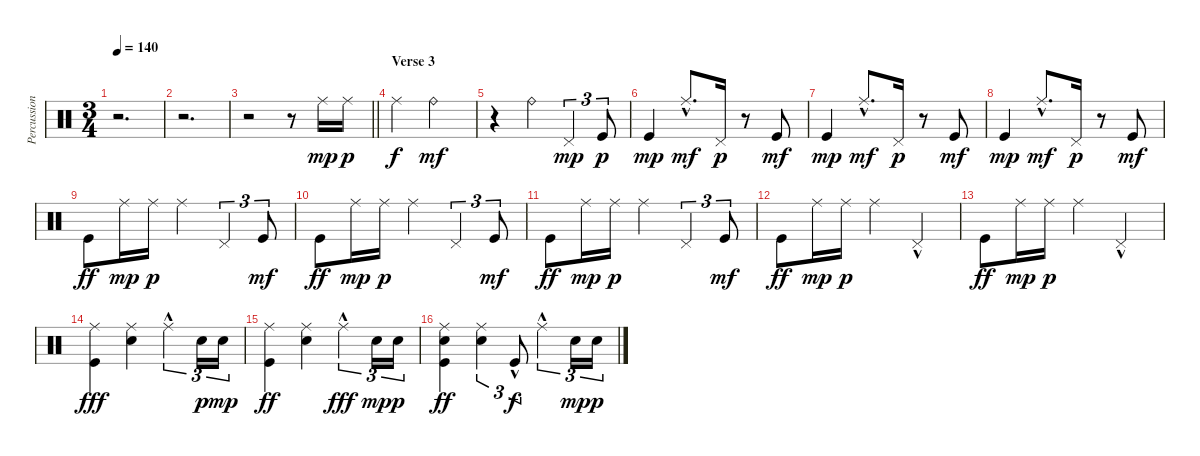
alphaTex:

\track ("Percussion" "Percussion") {instrument percussion}
\staff {score}
\articulation defaults
\ts (3 4)
\tempo 140
\clef neutral
\ks c
r.2{d dy ff} |
r.2{d} |
\barLineRight lightlight
r.2 r.8 "Ride (middle)".16{dy mp volume 11} "Ride (middle)".16{dy p} |
\section ("" "Verse 3")
"Ride (middle)".4{dy f} "Ride (bell)".2{dy mf} |
r.4 "Ride (bell)".4 "Pedal Hi-Hat (hit)".4{tu (3 2) dy mp} "Kick (hit)".8{tu (3 2) dy p} |
"Kick (hit)".4{dy mp} "Ride (middle)"{hac}.8{d dy mf} "Pedal Hi-Hat (hit)".16{dy p} r.8 "Kick (hit)".8{dy mf} |
"Kick (hit)".4{dy mp} "Ride (middle)"{hac}.8{d dy mf} "Pedal Hi-Hat (hit)".16{dy p} r.8 "Kick (hit)".8{dy mf} |
"Kick (hit)".4{dy mp} "Ride (middle)"{hac}.8{d dy mf} "Pedal Hi-Hat (hit)".16{dy p} r.8 "Kick (hit)".8{dy mf} |
"Kick (hit)".8{dy ff} "Ride (middle)".16{dy mp} "Ride (middle)".16{dy p} "Ride (middle)".4 "Pedal Hi-Hat (hit)".4{tu (3 2)} "Kick (hit)".8{tu (3 2) dy mf} |
"Kick (hit)".8{dy ff} "Ride (middle)".16{dy mp} "Ride (middle)".16{dy p} "Ride (middle)".4 "Pedal Hi-Hat (hit)".4{tu (3 2)} "Kick (hit)".8{tu (3 2) dy mf} |
"Kick (hit)".8{dy ff} "Ride (middle)".16{dy mp} "Ride (middle)".16{dy p} "Ride (middle)".4 "Pedal Hi-Hat (hit)".4{tu (3 2)} "Kick (hit)".8{tu (3 2) dy mf} |
"Kick (hit)".8{dy ff} "Ride (middle)".16{dy mp} "Ride (middle)".16{dy p} "Ride (middle)".4 "Pedal Hi-Hat (hit)"{hac}.4 |
"Kick (hit)".8{dy ff} "Ride (middle)".16{dy mp} "Ride (middle)".16{dy p} "Ride (middle)".4 "Pedal Hi-Hat (hit)"{hac}.4 |
("Ride (middle)" "Kick (hit)").4{dy fff} ("Electric Snare (hit)" "Ride (middle)").4 "Ride (middle)"{hac}.4{tu (3 2)} "Electric Snare (hit)".16{tu (3 2) dy p} "Electric Snare (hit)".16{tu (3 2) dy mp} |
("Kick (hit)" "Ride (middle)").4{dy ff} ("Electric Snare (hit)" "Ride (middle)").4 "Ride (middle)"{hac}.4{tu (3 2) dy fff} "Electric Snare (hit)".16{tu (3 2) dy mp} "Electric Snare (hit)".16{tu (3 2) dy p} |
("Electric Snare (hit)" "Ride (middle)" "Kick (hit)").4{dy ff} ("Electric Snare (hit)" "Ride (middle)").4{tu (3 2)} "Kick (hit)"{hac}.8{tu (3 2) dy f} "Ride (middle)"{hac}.4{tu (3 2)} "Electric Snare (hit)".16{tu (3 2) dy mp} "Electric Snare (hit)".16{tu (3 2) dy p}
